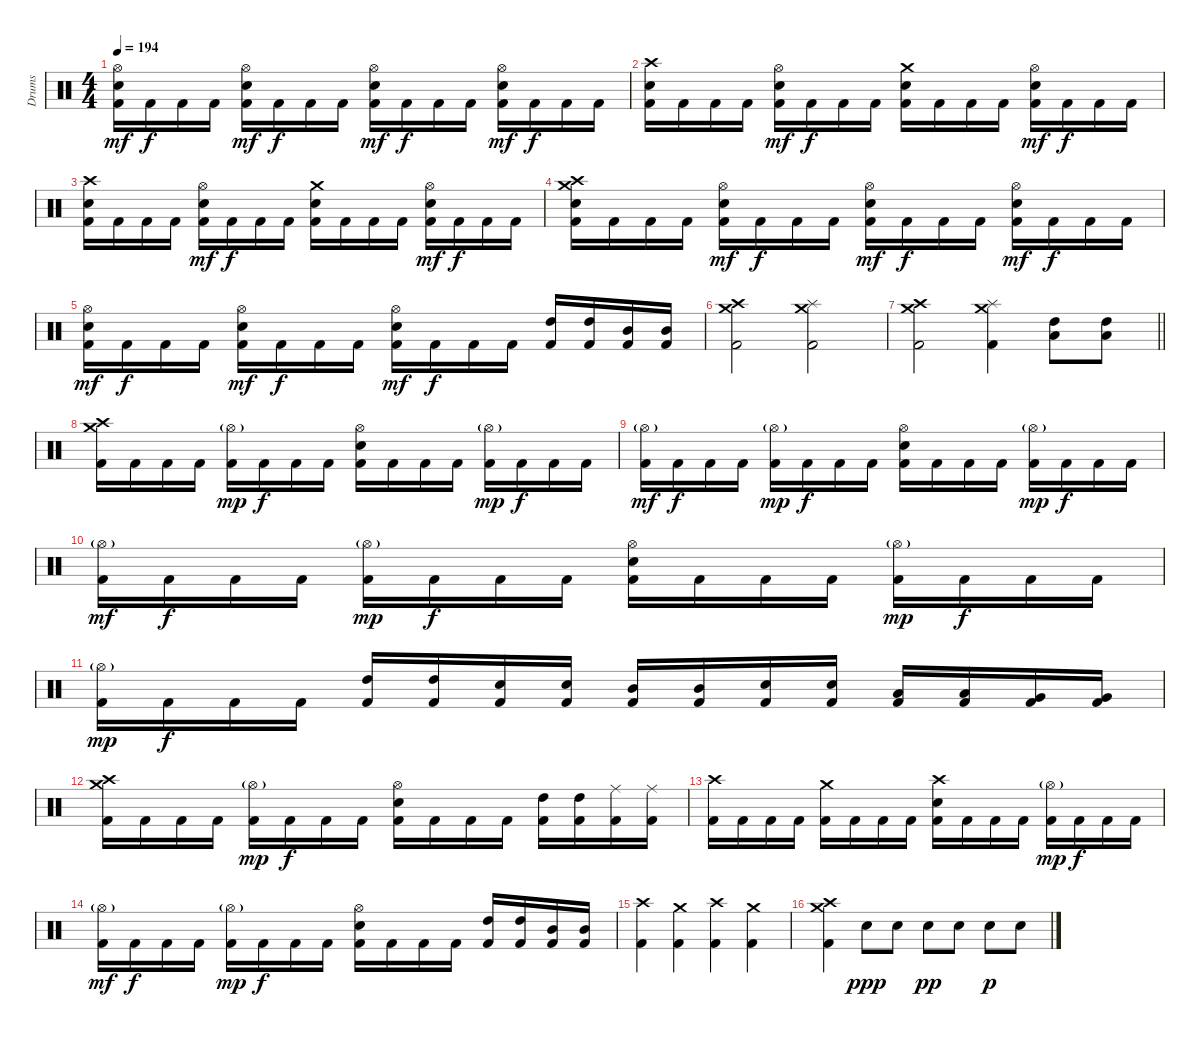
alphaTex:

\track ("Drums" "Drums") {instrument percussion}
\staff {score}
\articulation defaults
\ts (4 4)
\tempo 194
\clef neutral
\ks c
("Hi-Hat (open)" "Electric Snare (hit)" "Kick (hit) 2").16{dy mf} "Kick (hit) 2".16{dy f} "Kick (hit) 2".16 "Kick (hit) 2".16 ("Hi-Hat (open)" "Electric Snare (hit)" "Kick (hit) 2").16{dy mf} "Kick (hit) 2".16{dy f} "Kick (hit) 2".16 "Kick (hit) 2".16 ("Hi-Hat (open)" "Electric Snare (hit)" "Kick (hit) 2").16{dy mf} "Kick (hit) 2".16{dy f} "Kick (hit) 2".16 "Kick (hit) 2".16 ("Hi-Hat (open)" "Electric Snare (hit)" "Kick (hit) 2").16{dy mf} "Kick (hit) 2".16{dy f} "Kick (hit) 2".16 "Kick (hit) 2".16 |
("Crash high (hit)" "Electric Snare (hit)" "Kick (hit) 2").16 "Kick (hit) 2".16 "Kick (hit) 2".16 "Kick (hit) 2".16 ("Hi-Hat (open)" "Electric Snare (hit)" "Kick (hit) 2").16{dy mf} "Kick (hit) 2".16{dy f} "Kick (hit) 2".16 "Kick (hit) 2".16 ("Crash medium (hit)" "Electric Snare (hit)" "Kick (hit) 2").16 "Kick (hit) 2".16 "Kick (hit) 2".16 "Kick (hit) 2".16 ("Hi-Hat (open)" "Electric Snare (hit)" "Kick (hit) 2").16{dy mf} "Kick (hit) 2".16{dy f} "Kick (hit) 2".16 "Kick (hit) 2".16 |
("Crash high (hit)" "Electric Snare (hit)" "Kick (hit) 2").16 "Kick (hit) 2".16 "Kick (hit) 2".16 "Kick (hit) 2".16 ("Hi-Hat (open)" "Electric Snare (hit)" "Kick (hit) 2").16{dy mf} "Kick (hit) 2".16{dy f} "Kick (hit) 2".16 "Kick (hit) 2".16 ("Crash medium (hit)" "Electric Snare (hit)" "Kick (hit) 2").16 "Kick (hit) 2".16 "Kick (hit) 2".16 "Kick (hit) 2".16 ("Hi-Hat (open)" "Electric Snare (hit)" "Kick (hit) 2").16{dy mf} "Kick (hit) 2".16{dy f} "Kick (hit) 2".16 "Kick (hit) 2".16 |
("Crash high (hit)" "Crash medium (hit)" "Electric Snare (hit)" "Kick (hit) 2").16 "Kick (hit) 2".16 "Kick (hit) 2".16 "Kick (hit) 2".16 ("Hi-Hat (open)" "Electric Snare (hit)" "Kick (hit) 2").16{dy mf} "Kick (hit) 2".16{dy f} "Kick (hit) 2".16 "Kick (hit) 2".16 ("Hi-Hat (open)" "Electric Snare (hit)" "Kick (hit) 2").16{dy mf} "Kick (hit) 2".16{dy f} "Kick (hit) 2".16 "Kick (hit) 2".16 ("Hi-Hat (open)" "Electric Snare (hit)" "Kick (hit) 2").16{dy mf} "Kick (hit) 2".16{dy f} "Kick (hit) 2".16 "Kick (hit) 2".16 |
("Hi-Hat (open)" "Electric Snare (hit)" "Kick (hit) 2").16{dy mf} "Kick (hit) 2".16{dy f} "Kick (hit) 2".16 "Kick (hit) 2".16 ("Hi-Hat (open)" "Electric Snare (hit)" "Kick (hit) 2").16{dy mf} "Kick (hit) 2".16{dy f} "Kick (hit) 2".16 "Kick (hit) 2".16 ("Hi-Hat (open)" "Electric Snare (hit)" "Kick (hit) 2").16{dy mf} "Kick (hit) 2".16{dy f} "Kick (hit) 2".16 "Kick (hit) 2".16 ("High Tom (hit)" "Kick (hit) 2").16 ("High Tom (hit)" "Kick (hit) 2").16 ("Mid Tom (hit)" "Kick (hit) 2").16 ("Mid Tom (hit)" "Kick (hit) 2").16 |
("Crash high (hit)" "Crash medium (hit)" "Kick (hit) 2").2 ("Crash medium (hit)" "Splash (hit)" "Kick (hit) 2").2 |
\barLineRight lightlight
("Crash high (hit)" "Crash medium (hit)" "Kick (hit) 2").2 ("Crash medium (hit)" "Splash (hit)" "Kick (hit) 2").4 ("High Tom (hit)" "Low Tom (hit)").8 ("High Tom (hit)" "Low Tom (hit)").8 |
("Crash high (hit)" "Crash medium (hit)" "Kick (hit) 2").16 "Kick (hit) 2".16 "Kick (hit) 2".16 "Kick (hit) 2".16 ("Hi-Hat (open)"{g} "Kick (hit) 2").16{dy mp} "Kick (hit) 2".16{dy f} "Kick (hit) 2".16 "Kick (hit) 2".16 ("Hi-Hat (open)" "Electric Snare (hit)" "Kick (hit) 2").16 "Kick (hit) 2".16 "Kick (hit) 2".16 "Kick (hit) 2".16 ("Hi-Hat (open)"{g} "Kick (hit) 2").16{dy mp} "Kick (hit) 2".16{dy f} "Kick (hit) 2".16 "Kick (hit) 2".16 |
("Hi-Hat (open)"{g} "Kick (hit) 2").16{dy mf} "Kick (hit) 2".16{dy f} "Kick (hit) 2".16 "Kick (hit) 2".16 ("Hi-Hat (open)"{g} "Kick (hit) 2").16{dy mp} "Kick (hit) 2".16{dy f} "Kick (hit) 2".16 "Kick (hit) 2".16 ("Hi-Hat (open)" "Electric Snare (hit)" "Kick (hit) 2").16 "Kick (hit) 2".16 "Kick (hit) 2".16 "Kick (hit) 2".16 ("Hi-Hat (open)"{g} "Kick (hit) 2").16{dy mp} "Kick (hit) 2".16{dy f} "Kick (hit) 2".16 "Kick (hit) 2".16 |
("Hi-Hat (open)"{g} "Kick (hit) 2").16{dy mf} "Kick (hit) 2".16{dy f} "Kick (hit) 2".16 "Kick (hit) 2".16 ("Hi-Hat (open)"{g} "Kick (hit) 2").16{dy mp} "Kick (hit) 2".16{dy f} "Kick (hit) 2".16 "Kick (hit) 2".16 ("Hi-Hat (open)" "Electric Snare (hit)" "Kick (hit) 2").16 "Kick (hit) 2".16 "Kick (hit) 2".16 "Kick (hit) 2".16 ("Hi-Hat (open)"{g} "Kick (hit) 2").16{dy mp} "Kick (hit) 2".16{dy f} "Kick (hit) 2".16 "Kick (hit) 2".16 |
("Hi-Hat (open)"{g} "Kick (hit) 2").16{dy mp} "Kick (hit) 2".16{dy f} "Kick (hit) 2".16 "Kick (hit) 2".16 ("High Tom (hit)" "Kick (hit) 2").16 ("High Tom (hit)" "Kick (hit) 2").16 ("Electric Snare (hit)" "Kick (hit) 2").16 ("Electric Snare (hit)" "Kick (hit) 2").16 ("Mid Tom (hit)" "Kick (hit) 2").16 ("Mid Tom (hit)" "Kick (hit) 2").16 ("Electric Snare (hit)" "Kick (hit) 2").16 ("Electric Snare (hit)" "Kick (hit) 2").16 ("Low Tom (hit)" "Kick (hit) 2").16 ("Low Tom (hit)" "Kick (hit) 2").16 ("Very Low Tom (hit)" "Kick (hit) 2").16 ("Very Low Tom (hit)" "Kick (hit) 2").16 |
("Crash high (hit)" "Crash medium (hit)" "Kick (hit) 2").16 "Kick (hit) 2".16 "Kick (hit) 2".16 "Kick (hit) 2".16 ("Hi-Hat (open)"{g} "Kick (hit) 2").16{dy mp} "Kick (hit) 2".16{dy f} "Kick (hit) 2".16 "Kick (hit) 2".16 ("Hi-Hat (open)" "Electric Snare (hit)" "Kick (hit) 2").16 "Kick (hit) 2".16 "Kick (hit) 2".16 "Kick (hit) 2".16 ("High Tom (hit)" "Kick (hit) 2").16 ("High Tom (hit)" "Kick (hit) 2").16 ("Ride (middle)" "Kick (hit) 2").16 ("Ride (middle)" "Kick (hit) 2").16 |
("Crash high (hit)" "Kick (hit) 2").16 "Kick (hit) 2".16 "Kick (hit) 2".16 "Kick (hit) 2".16 ("Crash medium (hit)" "Kick (hit) 2").16 "Kick (hit) 2".16 "Kick (hit) 2".16 "Kick (hit) 2".16 ("Crash high (hit)" "Electric Snare (hit)" "Kick (hit) 2").16 "Kick (hit) 2".16 "Kick (hit) 2".16 "Kick (hit) 2".16 ("Hi-Hat (open)"{g} "Kick (hit) 2").16{dy mp} "Kick (hit) 2".16{dy f} "Kick (hit) 2".16 "Kick (hit) 2".16 |
("Hi-Hat (open)"{g} "Kick (hit) 2").16{dy mf} "Kick (hit) 2".16{dy f} "Kick (hit) 2".16 "Kick (hit) 2".16 ("Hi-Hat (open)"{g} "Kick (hit) 2").16{dy mp} "Kick (hit) 2".16{dy f} "Kick (hit) 2".16 "Kick (hit) 2".16 ("Hi-Hat (open)" "Electric Snare (hit)" "Kick (hit) 2").16 "Kick (hit) 2".16 "Kick (hit) 2".16 "Kick (hit) 2".16 ("High Tom (hit)" "Kick (hit) 2").16 ("High Tom (hit)" "Kick (hit) 2").16 ("Mid Tom (hit)" "Kick (hit) 2").16 ("Mid Tom (hit)" "Kick (hit) 2").16 |
("Crash high (hit)" "Kick (hit) 2").4 ("Crash medium (hit)" "Kick (hit) 2").4 ("Crash high (hit)" "Kick (hit) 2").4 ("Crash medium (hit)" "Kick (hit) 2").4 |
("Crash high (hit)" "Crash medium (hit)" "Kick (hit) 2").4 "Electric Snare (hit)".8{dy ppp} "Electric Snare (hit)".8 "Electric Snare (hit)".8{dy pp} "Electric Snare (hit)".8 "Electric Snare (hit)".8{dy p} "Electric Snare (hit)".8
